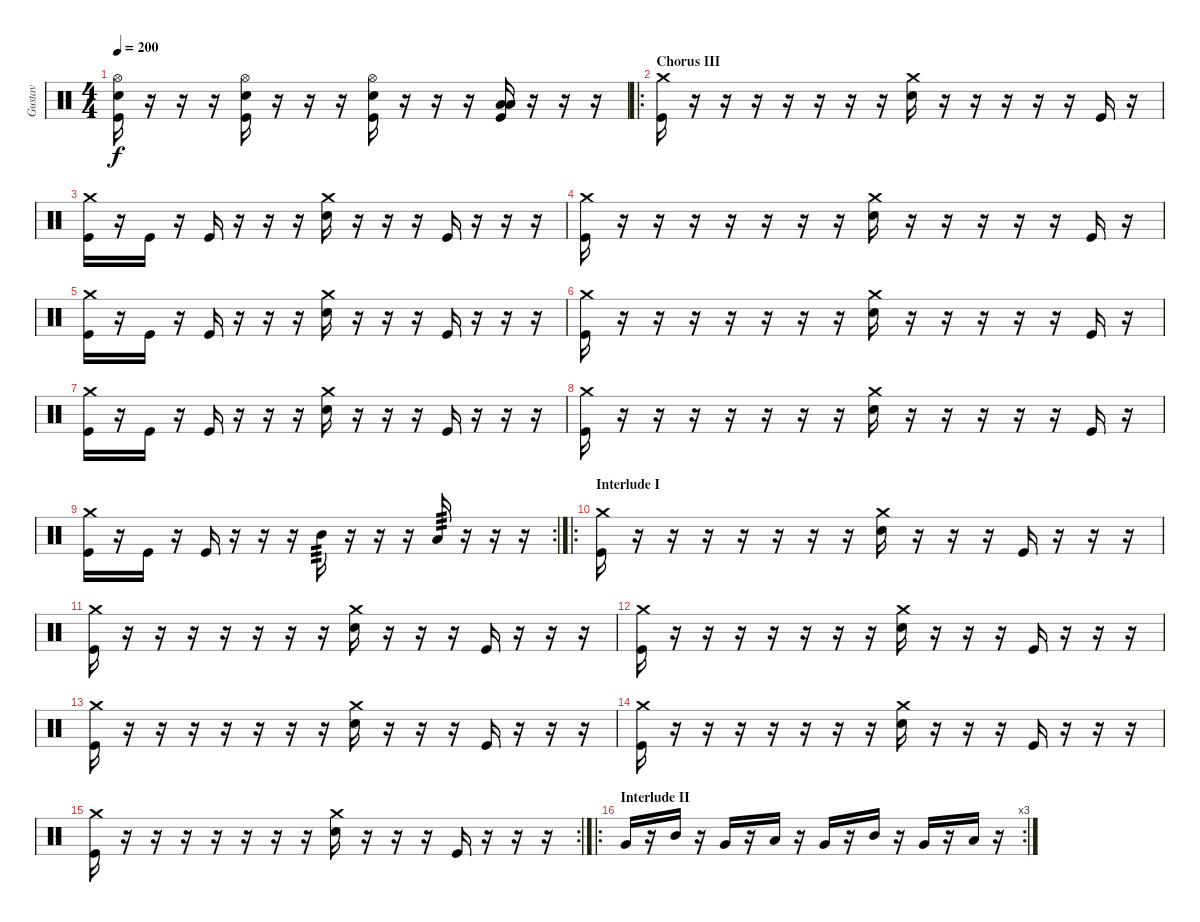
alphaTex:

\track ("Gustav" "Gustav") {instrument percussion}
\staff {score}
\articulation defaults
\ts (4 4)
\tempo 200
\clef neutral
\ks c
("Hi-Hat (open)" "Electric Snare (hit)" "Kick (hit)").16{dy f} r.16 r.16 r.16 ("Hi-Hat (open)" "Electric Snare (hit)" "Kick (hit)").16 r.16 r.16 r.16 ("Hi-Hat (open)" "Electric Snare (hit)" "Kick (hit)").16 r.16 r.16 r.16 ("Low Tom (hit)" "Low Tom (hit)" "Kick (hit)").16 r.16 r.16 r.16 |
\ro
\section ("" "Chorus III")
("Crash medium (hit)" "Kick (hit)").16 r.16 r.16 r.16 r.16 r.16 r.16 r.16 ("Crash medium (hit)" "Electric Snare (hit)").16 r.16 r.16 r.16 r.16 r.16 "Kick (hit)".16 r.16 |
("Crash medium (hit)" "Kick (hit)").16 r.16 "Kick (hit)".16 r.16 "Kick (hit)".16 r.16 r.16 r.16 ("Crash medium (hit)" "Electric Snare (hit)").16 r.16 r.16 r.16 "Kick (hit)".16 r.16 r.16 r.16 |
("Crash medium (hit)" "Kick (hit)").16 r.16 r.16 r.16 r.16 r.16 r.16 r.16 ("Crash medium (hit)" "Electric Snare (hit)").16 r.16 r.16 r.16 r.16 r.16 "Kick (hit)".16 r.16 |
("Crash medium (hit)" "Kick (hit)").16 r.16 "Kick (hit)".16 r.16 "Kick (hit)".16 r.16 r.16 r.16 ("Crash medium (hit)" "Electric Snare (hit)").16 r.16 r.16 r.16 "Kick (hit)".16 r.16 r.16 r.16 |
("Crash medium (hit)" "Kick (hit)").16 r.16 r.16 r.16 r.16 r.16 r.16 r.16 ("Crash medium (hit)" "Electric Snare (hit)").16 r.16 r.16 r.16 r.16 r.16 "Kick (hit)".16 r.16 |
("Crash medium (hit)" "Kick (hit)").16 r.16 "Kick (hit)".16 r.16 "Kick (hit)".16 r.16 r.16 r.16 ("Crash medium (hit)" "Electric Snare (hit)").16 r.16 r.16 r.16 "Kick (hit)".16 r.16 r.16 r.16 |
("Crash medium (hit)" "Kick (hit)").16 r.16 r.16 r.16 r.16 r.16 r.16 r.16 ("Crash medium (hit)" "Electric Snare (hit)").16 r.16 r.16 r.16 r.16 r.16 "Kick (hit)".16 r.16 |
\rc 2
("Crash medium (hit)" "Kick (hit)").16 r.16 "Kick (hit)".16 r.16 "Kick (hit)".16 r.16 r.16 r.16 "Mid Tom (hit)".16{tp 3} r.16 r.16 r.16 "Low Tom (hit)".16{tp 3} r.16 r.16 r.16 |
\ro
\section ("" "Interlude I")
("Crash medium (hit)" "Kick (hit)").16 r.16 r.16 r.16 r.16 r.16 r.16 r.16 ("Crash medium (hit)" "Electric Snare (hit)").16 r.16 r.16 r.16 "Kick (hit)".16 r.16 r.16 r.16 |
("Crash medium (hit)" "Kick (hit)").16 r.16 r.16 r.16 r.16 r.16 r.16 r.16 ("Crash medium (hit)" "Electric Snare (hit)").16 r.16 r.16 r.16 "Kick (hit)".16 r.16 r.16 r.16 |
("Crash medium (hit)" "Kick (hit)").16 r.16 r.16 r.16 r.16 r.16 r.16 r.16 ("Crash medium (hit)" "Electric Snare (hit)").16 r.16 r.16 r.16 "Kick (hit)".16 r.16 r.16 r.16 |
("Crash medium (hit)" "Kick (hit)").16 r.16 r.16 r.16 r.16 r.16 r.16 r.16 ("Crash medium (hit)" "Electric Snare (hit)").16 r.16 r.16 r.16 "Kick (hit)".16 r.16 r.16 r.16 |
("Crash medium (hit)" "Kick (hit)").16 r.16 r.16 r.16 r.16 r.16 r.16 r.16 ("Crash medium (hit)" "Electric Snare (hit)").16 r.16 r.16 r.16 "Kick (hit)".16 r.16 r.16 r.16 |
\rc 2
("Crash medium (hit)" "Kick (hit)").16 r.16 r.16 r.16 r.16 r.16 r.16 r.16 ("Crash medium (hit)" "Electric Snare (hit)").16 r.16 r.16 r.16 "Kick (hit)".16 r.16 r.16 r.16 |
\ro
\rc 3
\section ("" "Interlude II")
"Very Low Tom (hit)".16{volume 6} r.16 "Mid Tom (hit)".16 r.16 "Very Low Tom (hit)".16 r.16 "Low Tom (hit)".16 r.16 "Very Low Tom (hit)".16 r.16 "Mid Tom (hit)".16 r.16 "Very Low Tom (hit)".16 r.16 "Low Tom (hit)".16 r.16
